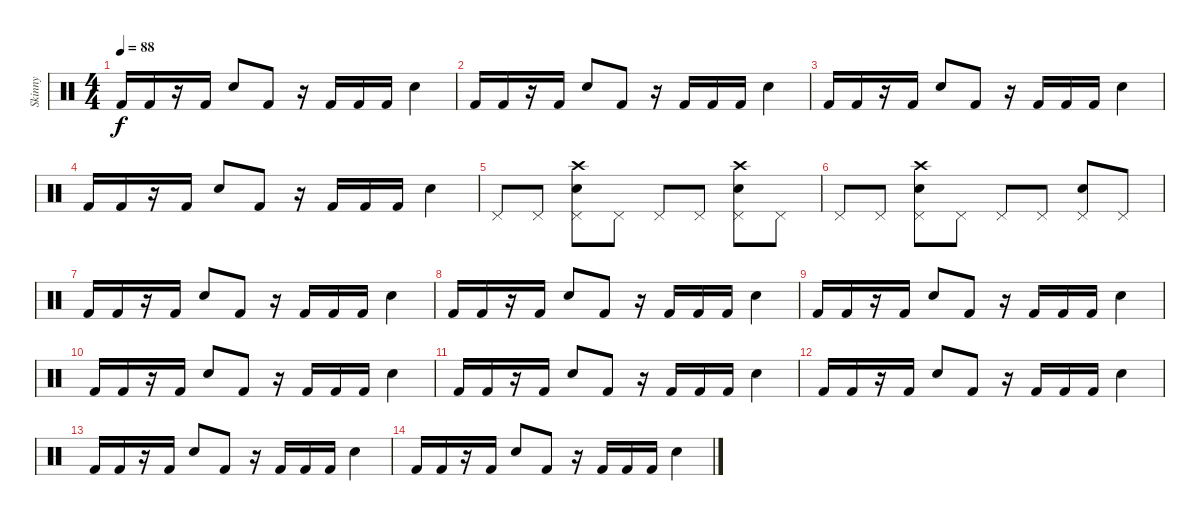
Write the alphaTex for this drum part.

\track ("Skinny" "Skinny") {instrument percussion}
\staff {score}
\articulation defaults
\ts (4 4)
\tempo 88
\clef neutral
\ks c "Kick (hit) 2".16{dy f} "Kick (hit) 2".16
r.16 "Kick (hit) 2".16 "Snare (hit) 2".8 "Kick (hit) 2".8 r.16 "Kick (hit) 2".16 "Kick (hit) 2".16 "Kick (hit) 2".16 "Snare (hit) 2".4 |
"Kick (hit) 2".16 "Kick (hit) 2".16 r.16 "Kick (hit) 2".16 "Snare (hit) 2".8 "Kick (hit) 2".8 r.16 "Kick (hit) 2".16 "Kick (hit) 2".16 "Kick (hit) 2".16 "Snare (hit) 2".4 |
"Kick (hit) 2".16 "Kick (hit) 2".16 r.16 "Kick (hit) 2".16 "Snare (hit) 2".8 "Kick (hit) 2".8 r.16 "Kick (hit) 2".16 "Kick (hit) 2".16 "Kick (hit) 2".16 "Snare (hit) 2".4 |
"Kick (hit) 2".16 "Kick (hit) 2".16 r.16 "Kick (hit) 2".16 "Snare (hit) 2".8 "Kick (hit) 2".8 r.16 "Kick (hit) 2".16 "Kick (hit) 2".16 "Kick (hit) 2".16 "Snare (hit) 2".4 |
"Pedal Hi-Hat (hit)".8 "Pedal Hi-Hat (hit)".8 ("Pedal Hi-Hat (hit)" "Snare (hit) 2" "Crash high (hit)").8 "Pedal Hi-Hat (hit)".8 "Pedal Hi-Hat (hit)".8 "Pedal Hi-Hat (hit)".8 ("Pedal Hi-Hat (hit)" "Snare (hit) 2" "Crash high (hit)").8 "Pedal Hi-Hat (hit)".8 |
"Pedal Hi-Hat (hit)".8 "Pedal Hi-Hat (hit)".8 ("Pedal Hi-Hat (hit)" "Snare (hit) 2" "Crash high (hit)").8 "Pedal Hi-Hat (hit)".8 "Pedal Hi-Hat (hit)".8 "Pedal Hi-Hat (hit)".8 ("Pedal Hi-Hat (hit)" "Snare (hit) 2").8 "Pedal Hi-Hat (hit)".8 |
"Kick (hit) 2".16 "Kick (hit) 2".16 r.16 "Kick (hit) 2".16 "Snare (hit) 2".8 "Kick (hit) 2".8 r.16 "Kick (hit) 2".16 "Kick (hit) 2".16 "Kick (hit) 2".16 "Snare (hit) 2".4 |
"Kick (hit) 2".16 "Kick (hit) 2".16 r.16 "Kick (hit) 2".16 "Snare (hit) 2".8 "Kick (hit) 2".8 r.16 "Kick (hit) 2".16 "Kick (hit) 2".16 "Kick (hit) 2".16 "Snare (hit) 2".4 |
"Kick (hit) 2".16 "Kick (hit) 2".16 r.16 "Kick (hit) 2".16 "Snare (hit) 2".8 "Kick (hit) 2".8 r.16 "Kick (hit) 2".16 "Kick (hit) 2".16 "Kick (hit) 2".16 "Snare (hit) 2".4 |
"Kick (hit) 2".16 "Kick (hit) 2".16 r.16 "Kick (hit) 2".16 "Snare (hit) 2".8 "Kick (hit) 2".8 r.16 "Kick (hit) 2".16 "Kick (hit) 2".16 "Kick (hit) 2".16 "Snare (hit) 2".4 |
"Kick (hit) 2".16 "Kick (hit) 2".16 r.16 "Kick (hit) 2".16 "Snare (hit) 2".8 "Kick (hit) 2".8 r.16 "Kick (hit) 2".16 "Kick (hit) 2".16 "Kick (hit) 2".16 "Snare (hit) 2".4 |
"Kick (hit) 2".16 "Kick (hit) 2".16 r.16 "Kick (hit) 2".16 "Snare (hit) 2".8 "Kick (hit) 2".8 r.16 "Kick (hit) 2".16 "Kick (hit) 2".16 "Kick (hit) 2".16 "Snare (hit) 2".4 |
"Kick (hit) 2".16 "Kick (hit) 2".16 r.16 "Kick (hit) 2".16 "Snare (hit) 2".8 "Kick (hit) 2".8 r.16 "Kick (hit) 2".16 "Kick (hit) 2".16 "Kick (hit) 2".16 "Snare (hit) 2".4 |
"Kick (hit) 2".16 "Kick (hit) 2".16 r.16 "Kick (hit) 2".16 "Snare (hit) 2".8 "Kick (hit) 2".8 r.16 "Kick (hit) 2".16 "Kick (hit) 2".16 "Kick (hit) 2".16 "Snare (hit) 2".4
